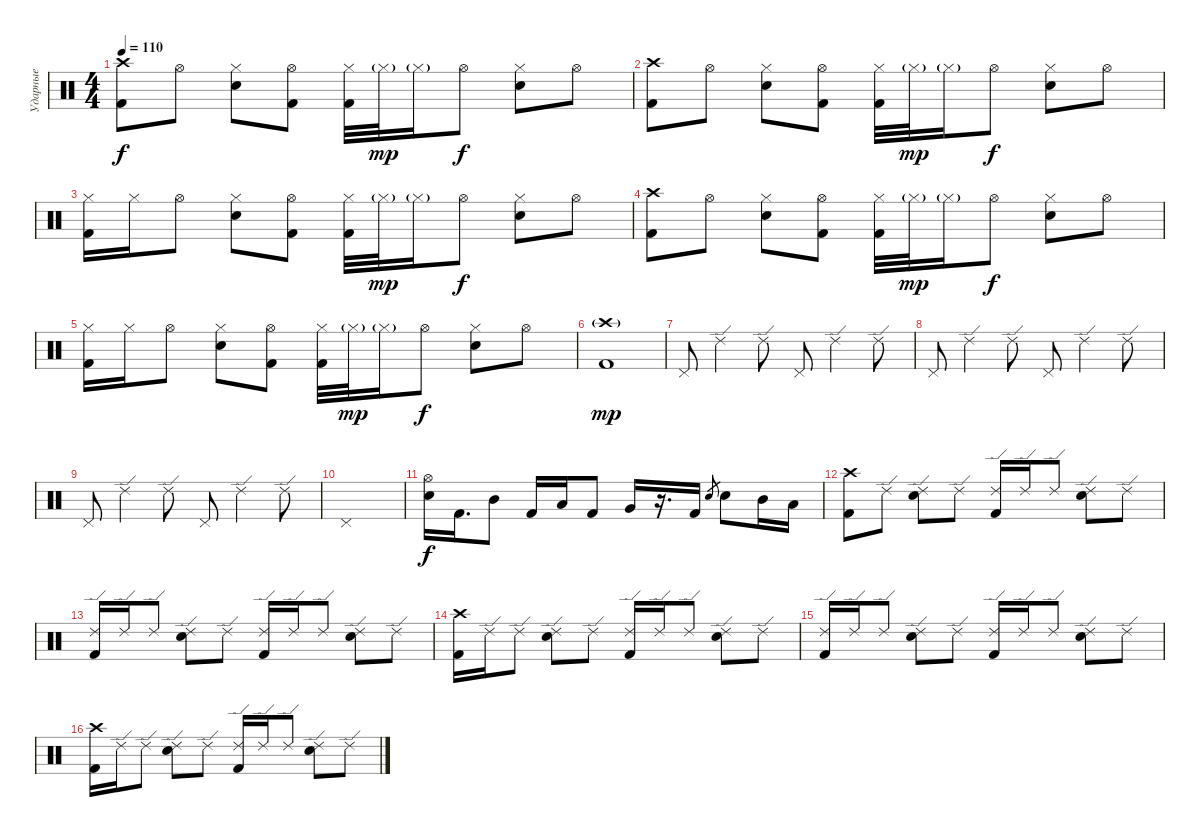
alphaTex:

\track ("Ударные" "Ударные") {instrument percussion}
\staff {score}
\articulation defaults
\ts (4 4)
\tempo 110
\clef neutral
\ks c
("Kick (hit) 2" "Crash high (hit)").8{dy f} "Hi-Hat (open)".8 ("Electric Snare (hit)" "Hi-Hat (closed)").8 ("Kick (hit) 2" "Hi-Hat (open)").8 ("Kick (hit) 2" "Hi-Hat (closed)").32 "Hi-Hat (closed)"{g}.32{dy mp} "Hi-Hat (closed)"{g}.16 "Hi-Hat (open)".8{dy f} ("Electric Snare (hit)" "Hi-Hat (closed)").8 "Hi-Hat (open)".8 |
("Kick (hit) 2" "Crash high (hit)").8 "Hi-Hat (open)".8 ("Electric Snare (hit)" "Hi-Hat (closed)").8 ("Kick (hit) 2" "Hi-Hat (open)").8 ("Kick (hit) 2" "Hi-Hat (closed)").32 "Hi-Hat (closed)"{g}.32{dy mp} "Hi-Hat (closed)"{g}.16 "Hi-Hat (open)".8{dy f} ("Electric Snare (hit)" "Hi-Hat (closed)").8 "Hi-Hat (open)".8 |
("Kick (hit) 2" "Hi-Hat (closed)").16 "Hi-Hat (closed)".16 "Hi-Hat (open)".8 ("Electric Snare (hit)" "Hi-Hat (closed)").8 ("Kick (hit) 2" "Hi-Hat (open)").8 ("Kick (hit) 2" "Hi-Hat (closed)").32 "Hi-Hat (closed)"{g}.32{dy mp} "Hi-Hat (closed)"{g}.16 "Hi-Hat (open)".8{dy f} ("Electric Snare (hit)" "Hi-Hat (closed)").8 "Hi-Hat (open)".8 |
("Kick (hit) 2" "Crash high (hit)").8 "Hi-Hat (open)".8 ("Electric Snare (hit)" "Hi-Hat (closed)").8 ("Kick (hit) 2" "Hi-Hat (open)").8 ("Kick (hit) 2" "Hi-Hat (closed)").32 "Hi-Hat (closed)"{g}.32{dy mp} "Hi-Hat (closed)"{g}.16 "Hi-Hat (open)".8{dy f} ("Electric Snare (hit)" "Hi-Hat (closed)").8 "Hi-Hat (open)".8 |
("Kick (hit) 2" "Hi-Hat (closed)").16 "Hi-Hat (closed)".16 "Hi-Hat (open)".8 ("Electric Snare (hit)" "Hi-Hat (closed)").8 ("Kick (hit) 2" "Hi-Hat (open)").8 ("Kick (hit) 2" "Hi-Hat (closed)").32 "Hi-Hat (closed)"{g}.32{dy mp} "Hi-Hat (closed)"{g}.16 "Hi-Hat (open)".8{dy f} ("Electric Snare (hit)" "Hi-Hat (closed)").8 "Hi-Hat (open)".8 |
("Kick (hit) 2" "Crash high (hit)"{g}).1{dy mp} |
"Pedal Hi-Hat (hit)".8 "Ride (edge) 2".4 "Ride (edge) 2".8 "Pedal Hi-Hat (hit)".8 "Ride (edge) 2".4 "Ride (edge) 2".8 |
"Pedal Hi-Hat (hit)".8 "Ride (edge) 2".4 "Ride (edge) 2".8 "Pedal Hi-Hat (hit)".8 "Ride (edge) 2".4 "Ride (edge) 2".8 |
"Pedal Hi-Hat (hit)".8 "Ride (edge) 2".4 "Ride (edge) 2".8 "Pedal Hi-Hat (hit)".8 "Ride (edge) 2".4 "Ride (edge) 2".8 |
"Pedal Hi-Hat (hit)".1 |
("Electric Snare (hit)" "Hi-Hat (open)").16{dy f} "Kick (hit) 2".16{d} "Mid Tom (hit)".8 "Kick (hit) 2".16 "Low Tom (hit)".16 "Kick (hit) 2".8 "Very Low Tom (hit)".16 r.16{d} "Kick (hit) 2".16 "Electric Snare (hit)".8{gr} "Electric Snare (hit)".8 "Mid Tom (hit)".16 "Low Tom (hit)".16 |
("Kick (hit) 2" "Crash high (hit)").8 "Ride (edge) 2".8 ("Electric Snare (hit)" "Ride (edge) 2").8 "Ride (edge) 2".8 ("Kick (hit) 2" "Ride (edge) 2").16 "Ride (edge) 2".16 "Ride (edge) 2".8 ("Electric Snare (hit)" "Ride (edge) 2").8 "Ride (edge) 2".8 |
("Kick (hit) 2" "Ride (edge) 2").16 "Ride (edge) 2".16 "Ride (edge) 2".8 ("Electric Snare (hit)" "Ride (edge) 2").8 "Ride (edge) 2".8 ("Kick (hit) 2" "Ride (edge) 2").16 "Ride (edge) 2".16 "Ride (edge) 2".8 ("Electric Snare (hit)" "Ride (edge) 2").8 "Ride (edge) 2".8 |
("Kick (hit) 2" "Crash high (hit)").16 "Ride (edge) 2".16 "Ride (edge) 2".8 ("Electric Snare (hit)" "Ride (edge) 2").8 "Ride (edge) 2".8 ("Kick (hit) 2" "Ride (edge) 2").16 "Ride (edge) 2".16 "Ride (edge) 2".8 ("Electric Snare (hit)" "Ride (edge) 2").8 "Ride (edge) 2".8 |
("Kick (hit) 2" "Ride (edge) 2").16 "Ride (edge) 2".16 "Ride (edge) 2".8 ("Electric Snare (hit)" "Ride (edge) 2").8 "Ride (edge) 2".8 ("Kick (hit) 2" "Ride (edge) 2").16 "Ride (edge) 2".16 "Ride (edge) 2".8 ("Electric Snare (hit)" "Ride (edge) 2").8 "Ride (edge) 2".8 |
("Kick (hit) 2" "Crash high (hit)").16 "Ride (edge) 2".16 "Ride (edge) 2".8 ("Electric Snare (hit)" "Ride (edge) 2").8 "Ride (edge) 2".8 ("Kick (hit) 2" "Ride (edge) 2").16 "Ride (edge) 2".16 "Ride (edge) 2".8 ("Electric Snare (hit)" "Ride (edge) 2").8 "Ride (edge) 2".8
